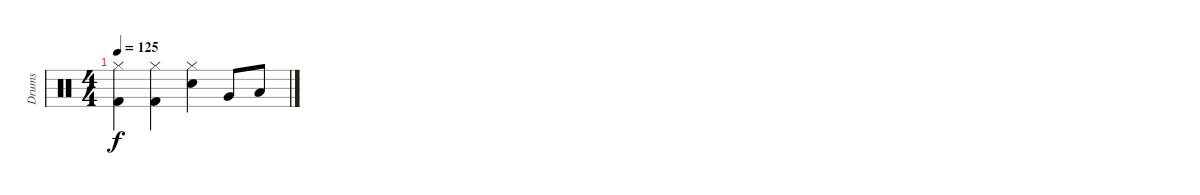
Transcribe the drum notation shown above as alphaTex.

\track ("Drums" "Drums") {instrument percussion}
\staff {score}
\articulation defaults
\ts (4 4)
\tempo 125
\clef neutral
\ks c
("Hi-Hat (closed)" "Kick (hit) 2").4{dy f} ("Hi-Hat (closed)" "Kick (hit) 2").4 ("Hi-Hat (closed)" "Snare (hit) 2").4 "Very Low Tom (hit)".8 "Low Floor Tom (hit)".8
